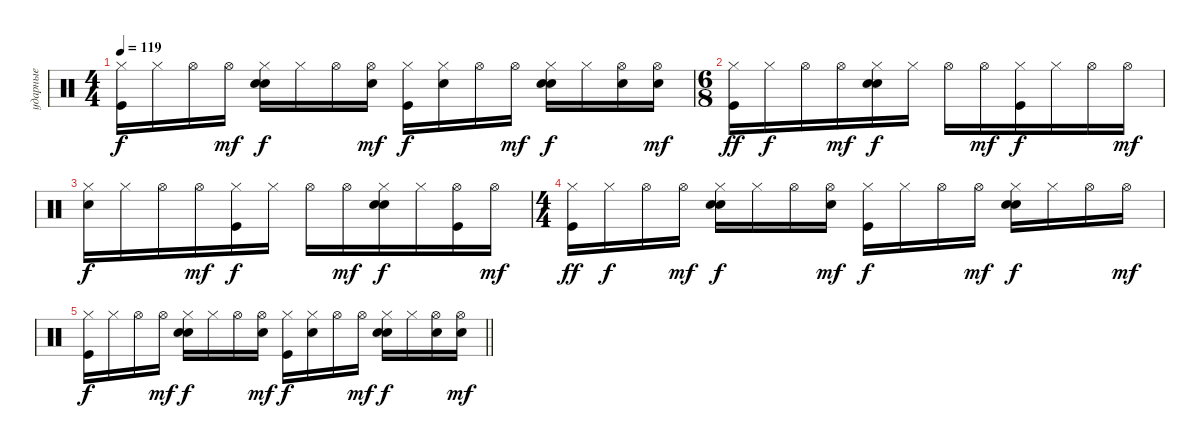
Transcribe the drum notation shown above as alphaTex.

\track ("ударные" "ударные") {instrument percussion}
\staff {score}
\articulation defaults
\ts (4 4)
\tempo 119
\clef neutral
\ks c
("Kick (hit)" "Hi-Hat (closed)").16{dy f} "Hi-Hat (closed)".16 "Hi-Hat (open)".16 "Hi-Hat (open)".16{dy mf} ("Electric Snare (hit)" "Hi-Hat (closed)" "Hand Clap (hit)").16{dy f} "Hi-Hat (closed)".16 "Hi-Hat (open)".16 ("Hi-Hat (open)" "Electric Snare (hit)").16{dy mf} ("Hi-Hat (closed)" "Kick (hit)").16{dy f} ("Electric Snare (hit)" "Hi-Hat (closed)").16 "Hi-Hat (open)".16 "Hi-Hat (open)".16{dy mf} ("Electric Snare (hit)" "Hi-Hat (closed)" "Hand Clap (hit)").16{dy f} "Hi-Hat (closed)".16 ("Electric Snare (hit)" "Hi-Hat (open)").16 ("Electric Snare (hit)" "Hi-Hat (open)").16{dy mf} |
\ts (6 8)
("Hi-Hat (closed)" "Kick (hit)").16{dy ff} "Hi-Hat (closed)".16{dy f} "Hi-Hat (open)".16 "Hi-Hat (open)".16{dy mf} ("Electric Snare (hit)" "Hi-Hat (closed)" "Hand Clap (hit)").16{dy f} "Hi-Hat (closed)".16 "Hi-Hat (open)".16 "Hi-Hat (open)".16{dy mf} ("Kick (hit)" "Hi-Hat (closed)").16{dy f} "Hi-Hat (closed)".16 "Hi-Hat (open)".16 "Hi-Hat (open)".16{dy mf} |
("Electric Snare (hit)" "Hi-Hat (closed)").16{dy f} "Hi-Hat (closed)".16 "Hi-Hat (open)".16 "Hi-Hat (open)".16{dy mf} ("Kick (hit)" "Hi-Hat (closed)").16{dy f} "Hi-Hat (closed)".16 "Hi-Hat (open)".16 "Hi-Hat (open)".16{dy mf} ("Electric Snare (hit)" "Hi-Hat (closed)" "Hand Clap (hit)").16{dy f} "Hi-Hat (closed)".16 ("Kick (hit)" "Hi-Hat (open)").16 "Hi-Hat (open)".16{dy mf} |
\ts (4 4)
("Kick (hit)" "Hi-Hat (closed)").16{dy ff} "Hi-Hat (closed)".16{dy f volume 13} "Hi-Hat (open)".16{volume 12} "Hi-Hat (open)".16{dy mf volume 12} ("Electric Snare (hit)" "Hi-Hat (closed)" "Hand Clap (hit)").16{dy f volume 12} "Hi-Hat (closed)".16{volume 11} "Hi-Hat (open)".16{volume 11} ("Hi-Hat (open)" "Electric Snare (hit)").16{dy mf volume 10} ("Hi-Hat (closed)" "Kick (hit)").16{dy f volume 10} "Hi-Hat (closed)".16{volume 10} "Hi-Hat (open)".16{volume 10} "Hi-Hat (open)".16{dy mf volume 9} ("Electric Snare (hit)" "Hi-Hat (closed)" "Hand Clap (hit)").16{dy f volume 9} "Hi-Hat (closed)".16{volume 8} "Hi-Hat (open)".16{volume 8} "Hi-Hat (open)".16{dy mf volume 8} |
\barLineRight lightlight
("Kick (hit)" "Hi-Hat (closed)").16{dy f volume 7} "Hi-Hat (closed)".16{volume 7} "Hi-Hat (open)".16{volume 7} "Hi-Hat (open)".16{dy mf volume 6} ("Electric Snare (hit)" "Hi-Hat (closed)" "Hand Clap (hit)").16{dy f volume 6} "Hi-Hat (closed)".16{volume 6} "Hi-Hat (open)".16{volume 5} ("Hi-Hat (open)" "Electric Snare (hit)").16{dy mf volume 5} ("Hi-Hat (closed)" "Kick (hit)").16{dy f volume 5} ("Electric Snare (hit)" "Hi-Hat (closed)").16{volume 4} "Hi-Hat (open)".16{volume 4} "Hi-Hat (open)".16{dy mf volume 4} ("Electric Snare (hit)" "Hi-Hat (closed)" "Hand Clap (hit)").16{dy f volume 3} "Hi-Hat (closed)".16{volume 3} ("Electric Snare (hit)" "Hi-Hat (open)").16{volume 3} ("Electric Snare (hit)" "Hi-Hat (open)").16{dy mf volume 2}
